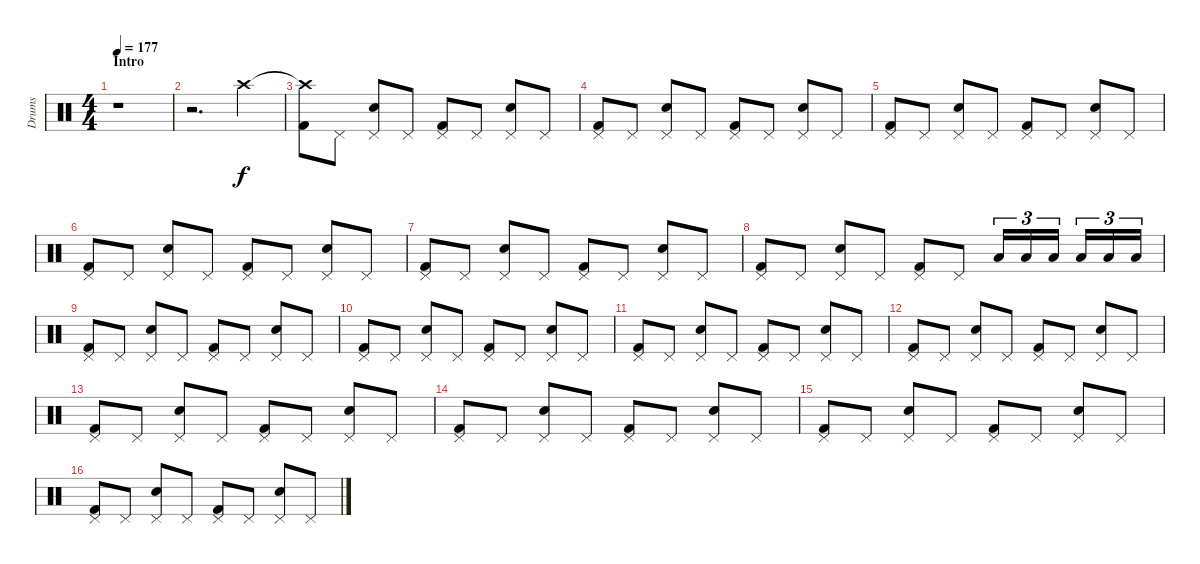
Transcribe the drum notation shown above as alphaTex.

\track ("Drums" "Drums") {instrument percussion}
\staff {score}
\articulation defaults
\ts (4 4)
\section ("" "Intro ")
\tempo 177
\clef neutral
\ks c
r.1{dy f} |
r.2{d} "Crash high (hit)".4 |
("Crash high (hit)"{t} "Kick (hit) 2").8 "Pedal Hi-Hat (hit)".8 ("Pedal Hi-Hat (hit)" "Electric Snare (hit)").8 "Pedal Hi-Hat (hit)".8 ("Pedal Hi-Hat (hit)" "Kick (hit) 2").8 "Pedal Hi-Hat (hit)".8 ("Pedal Hi-Hat (hit)" "Electric Snare (hit)").8 "Pedal Hi-Hat (hit)".8 |
("Pedal Hi-Hat (hit)" "Kick (hit) 2").8 "Pedal Hi-Hat (hit)".8 ("Pedal Hi-Hat (hit)" "Electric Snare (hit)").8 "Pedal Hi-Hat (hit)".8 ("Pedal Hi-Hat (hit)" "Kick (hit) 2").8 "Pedal Hi-Hat (hit)".8 ("Pedal Hi-Hat (hit)" "Electric Snare (hit)").8 "Pedal Hi-Hat (hit)".8 |
("Pedal Hi-Hat (hit)" "Kick (hit) 2").8 "Pedal Hi-Hat (hit)".8 ("Pedal Hi-Hat (hit)" "Electric Snare (hit)").8 "Pedal Hi-Hat (hit)".8 ("Pedal Hi-Hat (hit)" "Kick (hit) 2").8 "Pedal Hi-Hat (hit)".8 ("Pedal Hi-Hat (hit)" "Electric Snare (hit)").8 "Pedal Hi-Hat (hit)".8 |
("Pedal Hi-Hat (hit)" "Kick (hit) 2").8 "Pedal Hi-Hat (hit)".8 ("Pedal Hi-Hat (hit)" "Electric Snare (hit)").8 "Pedal Hi-Hat (hit)".8 ("Pedal Hi-Hat (hit)" "Kick (hit) 2").8 "Pedal Hi-Hat (hit)".8 ("Pedal Hi-Hat (hit)" "Electric Snare (hit)").8 "Pedal Hi-Hat (hit)".8 |
("Pedal Hi-Hat (hit)" "Kick (hit) 2").8 "Pedal Hi-Hat (hit)".8 ("Pedal Hi-Hat (hit)" "Electric Snare (hit)").8 "Pedal Hi-Hat (hit)".8 ("Pedal Hi-Hat (hit)" "Kick (hit) 2").8 "Pedal Hi-Hat (hit)".8 ("Pedal Hi-Hat (hit)" "Electric Snare (hit)").8 "Pedal Hi-Hat (hit)".8 |
("Pedal Hi-Hat (hit)" "Kick (hit) 2").8 "Pedal Hi-Hat (hit)".8 ("Pedal Hi-Hat (hit)" "Electric Snare (hit)").8 "Pedal Hi-Hat (hit)".8 ("Pedal Hi-Hat (hit)" "Kick (hit) 2").8 "Pedal Hi-Hat (hit)".8 "Low Tom (hit)".16{tu (3 2)} "Low Tom (hit)".16{tu (3 2)} "Low Tom (hit)".16{tu (3 2)} "Low Floor Tom (hit)".16{tu (3 2)} "Low Floor Tom (hit)".16{tu (3 2)} "Low Floor Tom (hit)".16{tu (3 2)} |
("Pedal Hi-Hat (hit)" "Kick (hit) 2").8 "Pedal Hi-Hat (hit)".8 ("Pedal Hi-Hat (hit)" "Electric Snare (hit)").8 "Pedal Hi-Hat (hit)".8 ("Pedal Hi-Hat (hit)" "Kick (hit) 2").8 "Pedal Hi-Hat (hit)".8 ("Pedal Hi-Hat (hit)" "Electric Snare (hit)").8 "Pedal Hi-Hat (hit)".8 |
("Pedal Hi-Hat (hit)" "Kick (hit) 2").8 "Pedal Hi-Hat (hit)".8 ("Pedal Hi-Hat (hit)" "Electric Snare (hit)").8 "Pedal Hi-Hat (hit)".8 ("Pedal Hi-Hat (hit)" "Kick (hit) 2").8 "Pedal Hi-Hat (hit)".8 ("Pedal Hi-Hat (hit)" "Electric Snare (hit)").8 "Pedal Hi-Hat (hit)".8 |
("Pedal Hi-Hat (hit)" "Kick (hit) 2").8 "Pedal Hi-Hat (hit)".8 ("Pedal Hi-Hat (hit)" "Electric Snare (hit)").8 "Pedal Hi-Hat (hit)".8 ("Pedal Hi-Hat (hit)" "Kick (hit) 2").8 "Pedal Hi-Hat (hit)".8 ("Pedal Hi-Hat (hit)" "Electric Snare (hit)").8 "Pedal Hi-Hat (hit)".8 |
("Pedal Hi-Hat (hit)" "Kick (hit) 2").8 "Pedal Hi-Hat (hit)".8 ("Pedal Hi-Hat (hit)" "Electric Snare (hit)").8 "Pedal Hi-Hat (hit)".8 ("Pedal Hi-Hat (hit)" "Kick (hit) 2").8 "Pedal Hi-Hat (hit)".8 ("Pedal Hi-Hat (hit)" "Electric Snare (hit)").8 "Pedal Hi-Hat (hit)".8 |
("Pedal Hi-Hat (hit)" "Kick (hit) 2").8 "Pedal Hi-Hat (hit)".8 ("Pedal Hi-Hat (hit)" "Electric Snare (hit)").8 "Pedal Hi-Hat (hit)".8 ("Pedal Hi-Hat (hit)" "Kick (hit) 2").8 "Pedal Hi-Hat (hit)".8 ("Pedal Hi-Hat (hit)" "Electric Snare (hit)").8 "Pedal Hi-Hat (hit)".8 |
("Pedal Hi-Hat (hit)" "Kick (hit) 2").8 "Pedal Hi-Hat (hit)".8 ("Pedal Hi-Hat (hit)" "Electric Snare (hit)").8 "Pedal Hi-Hat (hit)".8 ("Pedal Hi-Hat (hit)" "Kick (hit) 2").8 "Pedal Hi-Hat (hit)".8 ("Pedal Hi-Hat (hit)" "Electric Snare (hit)").8 "Pedal Hi-Hat (hit)".8 |
("Pedal Hi-Hat (hit)" "Kick (hit) 2").8 "Pedal Hi-Hat (hit)".8 ("Pedal Hi-Hat (hit)" "Electric Snare (hit)").8 "Pedal Hi-Hat (hit)".8 ("Pedal Hi-Hat (hit)" "Kick (hit) 2").8 "Pedal Hi-Hat (hit)".8 ("Pedal Hi-Hat (hit)" "Electric Snare (hit)").8 "Pedal Hi-Hat (hit)".8 |
("Pedal Hi-Hat (hit)" "Kick (hit) 2").8 "Pedal Hi-Hat (hit)".8 ("Pedal Hi-Hat (hit)" "Electric Snare (hit)").8 "Pedal Hi-Hat (hit)".8 ("Pedal Hi-Hat (hit)" "Kick (hit) 2").8 "Pedal Hi-Hat (hit)".8 ("Pedal Hi-Hat (hit)" "Electric Snare (hit)").8 "Pedal Hi-Hat (hit)".8
